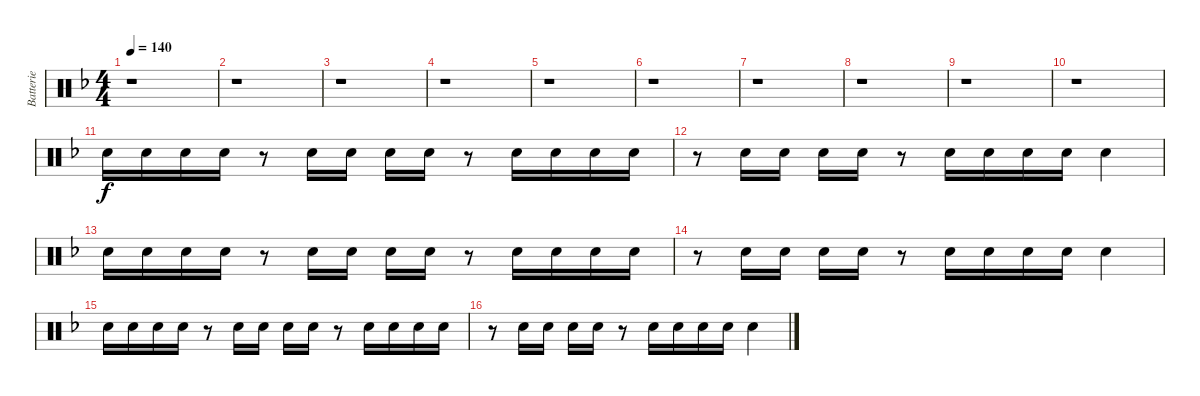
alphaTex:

\track ("Batterie" "Batterie") {instrument percussion}
\staff {score}
\articulation defaults
\ts (4 4)
\tempo 140
\clef neutral
\ks f
r.1{dy f} |
r.1 |
r.1 |
r.1 |
r.1 |
r.1 |
r.1 |
r.1 |
r.1 |
r.1 |
"Snare (hit) 2".16 "Snare (hit) 2".16 "Snare (hit) 2".16 "Snare (hit) 2".16 r.8 "Snare (hit) 2".16 "Snare (hit) 2".16 "Snare (hit) 2".16 "Snare (hit) 2".16 r.8 "Snare (hit) 2".16 "Snare (hit) 2".16 "Snare (hit) 2".16 "Snare (hit) 2".16 |
r.8 "Snare (hit) 2".16 "Snare (hit) 2".16 "Snare (hit) 2".16 "Snare (hit) 2".16 r.8 "Snare (hit) 2".16 "Snare (hit) 2".16 "Snare (hit) 2".16 "Snare (hit) 2".16 "Snare (hit) 2".4 |
"Snare (hit) 2".16 "Snare (hit) 2".16 "Snare (hit) 2".16 "Snare (hit) 2".16 r.8 "Snare (hit) 2".16 "Snare (hit) 2".16 "Snare (hit) 2".16 "Snare (hit) 2".16 r.8 "Snare (hit) 2".16 "Snare (hit) 2".16 "Snare (hit) 2".16 "Snare (hit) 2".16 |
r.8 "Snare (hit) 2".16 "Snare (hit) 2".16 "Snare (hit) 2".16 "Snare (hit) 2".16 r.8 "Snare (hit) 2".16 "Snare (hit) 2".16 "Snare (hit) 2".16 "Snare (hit) 2".16 "Snare (hit) 2".4 |
"Snare (hit) 2".16 "Snare (hit) 2".16 "Snare (hit) 2".16 "Snare (hit) 2".16 r.8 "Snare (hit) 2".16 "Snare (hit) 2".16 "Snare (hit) 2".16 "Snare (hit) 2".16 r.8 "Snare (hit) 2".16 "Snare (hit) 2".16 "Snare (hit) 2".16 "Snare (hit) 2".16 |
r.8 "Snare (hit) 2".16 "Snare (hit) 2".16 "Snare (hit) 2".16 "Snare (hit) 2".16 r.8 "Snare (hit) 2".16 "Snare (hit) 2".16 "Snare (hit) 2".16 "Snare (hit) 2".16 "Snare (hit) 2".4
